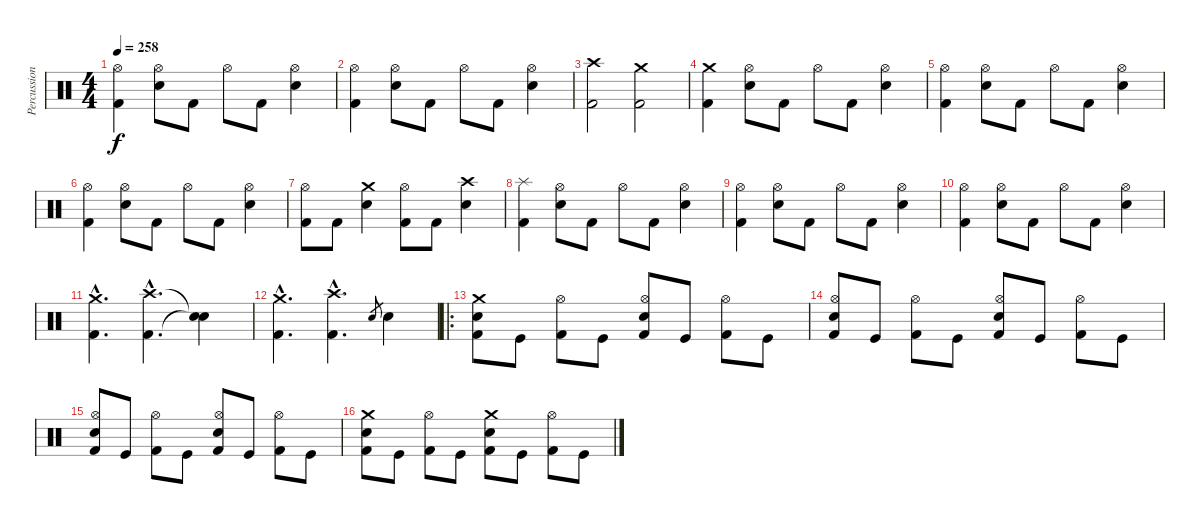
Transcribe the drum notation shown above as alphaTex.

\track ("Percussions" "Percussion") {instrument percussion}
\staff {score}
\articulation defaults
\ts (4 4)
\tempo 258
\clef neutral
\ks c
("Kick (hit) 2" "Hi-Hat (open)").4{dy f} ("Electric Snare (hit)" "Hi-Hat (open)").8 "Kick (hit) 2".8 "Hi-Hat (open)".8 "Kick (hit) 2".8 ("Electric Snare (hit)" "Hi-Hat (open)").4 |
("Kick (hit) 2" "Hi-Hat (open)").4 ("Electric Snare (hit)" "Hi-Hat (open)").8 "Kick (hit) 2".8 "Hi-Hat (open)".8 "Kick (hit) 2".8 ("Electric Snare (hit)" "Hi-Hat (open)").4 |
("Kick (hit) 2" "Crash high (hit)").2 ("Kick (hit) 2" "Crash medium (hit)").2 |
("Kick (hit) 2" "Crash medium (hit)").4 ("Electric Snare (hit)" "Hi-Hat (open)").8 "Kick (hit) 2".8 "Hi-Hat (open)".8 "Kick (hit) 2".8 ("Electric Snare (hit)" "Hi-Hat (open)").4 |
("Kick (hit) 2" "Hi-Hat (open)").4 ("Electric Snare (hit)" "Hi-Hat (open)").8 "Kick (hit) 2".8 "Hi-Hat (open)".8 "Kick (hit) 2".8 ("Electric Snare (hit)" "Hi-Hat (open)").4 |
("Kick (hit) 2" "Hi-Hat (open)").4 ("Electric Snare (hit)" "Hi-Hat (open)").8 "Kick (hit) 2".8 "Hi-Hat (open)".8 "Kick (hit) 2".8 ("Electric Snare (hit)" "Hi-Hat (open)").4 |
("Kick (hit) 2" "Hi-Hat (open)").8 "Kick (hit) 2".8 ("Electric Snare (hit)" "Crash medium (hit)").4 ("Kick (hit) 2" "Hi-Hat (open)").8 "Kick (hit) 2".8 ("Electric Snare (hit)" "Crash high (hit)").4 |
("Kick (hit) 2" "Splash (hit)").4 ("Electric Snare (hit)" "Hi-Hat (open)").8 "Kick (hit) 2".8 "Hi-Hat (open)".8 "Kick (hit) 2".8 ("Electric Snare (hit)" "Hi-Hat (open)").4 |
("Kick (hit) 2" "Hi-Hat (open)").4 ("Electric Snare (hit)" "Hi-Hat (open)").8 "Kick (hit) 2".8 "Hi-Hat (open)".8 "Kick (hit) 2".8 ("Electric Snare (hit)" "Hi-Hat (open)").4 |
("Kick (hit) 2" "Hi-Hat (open)").4 ("Electric Snare (hit)" "Hi-Hat (open)").8 "Kick (hit) 2".8 "Hi-Hat (open)".8 "Kick (hit) 2".8 ("Electric Snare (hit)" "Hi-Hat (open)").4 |
("Kick (hit) 2"{hac} "Crash medium (hit)"{hac}).4{d} ("Kick (hit) 2"{hac} "Crash high (hit)"{hac}).4{d} ("Snare (hit)"{t} "Snare (hit)"{t}).4 |
("Kick (hit) 2"{hac} "Crash medium (hit)"{hac}).4{d} ("Kick (hit) 2"{hac} "Crash high (hit)"{hac}).4{d} "Electric Snare (hit)".8{gr} "Electric Snare (hit)".4 |
\ro
("Kick (hit) 2" "Electric Snare (hit)" "Crash medium (hit)").8 "Kick (hit)".8 ("Kick (hit) 2" "Hi-Hat (open)").8 "Kick (hit)".8 ("Kick (hit) 2" "Electric Snare (hit)" "Hi-Hat (open)").8 "Kick (hit)".8 ("Kick (hit) 2" "Hi-Hat (open)").8 "Kick (hit)".8 |
("Kick (hit) 2" "Electric Snare (hit)" "Hi-Hat (open)").8 "Kick (hit)".8 ("Kick (hit) 2" "Hi-Hat (open)").8 "Kick (hit)".8 ("Kick (hit) 2" "Electric Snare (hit)" "Hi-Hat (open)").8 "Kick (hit)".8 ("Kick (hit) 2" "Hi-Hat (open)").8 "Kick (hit)".8 |
("Kick (hit) 2" "Electric Snare (hit)" "Hi-Hat (open)").8 "Kick (hit)".8 ("Kick (hit) 2" "Hi-Hat (open)").8 "Kick (hit)".8 ("Kick (hit) 2" "Electric Snare (hit)" "Hi-Hat (open)").8 "Kick (hit)".8 ("Kick (hit) 2" "Hi-Hat (open)").8 "Kick (hit)".8 |
("Kick (hit) 2" "Electric Snare (hit)" "Crash medium (hit)").8 "Kick (hit)".8 ("Kick (hit) 2" "Hi-Hat (open)").8 "Kick (hit)".8 ("Kick (hit) 2" "Electric Snare (hit)" "Crash medium (hit)").8 "Kick (hit)".8 ("Kick (hit) 2" "Hi-Hat (open)").8 "Kick (hit)".8
